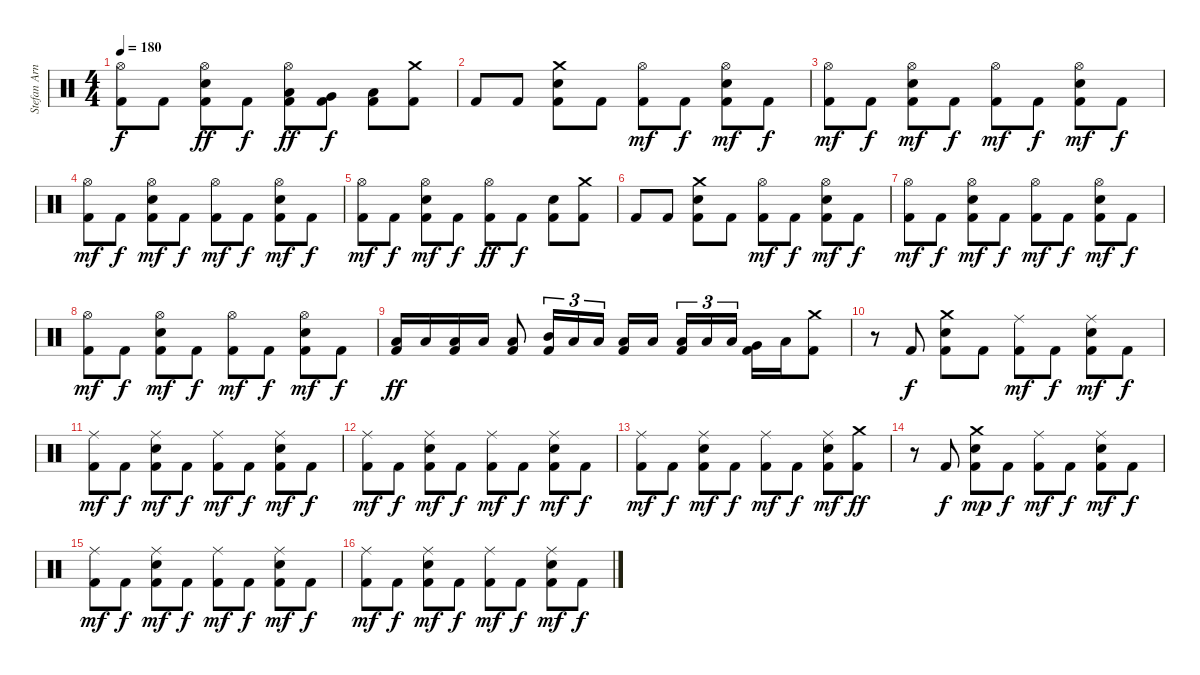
\track ("Stefan Arnold" "Stefan Arn") {instrument percussion}
\staff {score}
\articulation defaults
\ts (4 4)
\tempo 180
\clef neutral
\ks c
("Hi-Hat (open)" "Kick (hit) 2").8{dy f} "Kick (hit) 2".8 ("Hi-Hat (open)" "Electric Snare (hit)" "Kick (hit) 2").8{dy ff} "Kick (hit) 2".8{dy f} ("Hi-Hat (open)" "Low Tom (hit)" "Kick (hit) 2").8{dy ff} ("Very Low Tom (hit)" "Kick (hit) 2").8{dy f} ("Low Floor Tom (hit)" "Kick (hit) 2").8 ("Crash medium (hit)" "Kick (hit) 2").8 |
"Kick (hit) 2".8 "Kick (hit) 2".8 ("Crash medium (hit)" "Electric Snare (hit)" "Kick (hit) 2").8 "Kick (hit) 2".8 ("Hi-Hat (open)" "Kick (hit) 2").8{dy mf} "Kick (hit) 2".8{dy f} ("Hi-Hat (open)" "Electric Snare (hit)" "Kick (hit) 2").8{dy mf} "Kick (hit) 2".8{dy f} |
("Hi-Hat (open)" "Kick (hit) 2").8{dy mf} "Kick (hit) 2".8{dy f} ("Hi-Hat (open)" "Electric Snare (hit)" "Kick (hit) 2").8{dy mf} "Kick (hit) 2".8{dy f} ("Hi-Hat (open)" "Kick (hit) 2").8{dy mf} "Kick (hit) 2".8{dy f} ("Hi-Hat (open)" "Electric Snare (hit)" "Kick (hit) 2").8{dy mf} "Kick (hit) 2".8{dy f} |
("Hi-Hat (open)" "Kick (hit) 2").8{dy mf} "Kick (hit) 2".8{dy f} ("Hi-Hat (open)" "Electric Snare (hit)" "Kick (hit) 2").8{dy mf} "Kick (hit) 2".8{dy f} ("Hi-Hat (open)" "Kick (hit) 2").8{dy mf} "Kick (hit) 2".8{dy f} ("Hi-Hat (open)" "Electric Snare (hit)" "Kick (hit) 2").8{dy mf} "Kick (hit) 2".8{dy f} |
("Hi-Hat (open)" "Kick (hit) 2").8{dy mf} "Kick (hit) 2".8{dy f} ("Hi-Hat (open)" "Electric Snare (hit)" "Kick (hit) 2").8{dy mf} "Kick (hit) 2".8{dy f} ("Hi-Hat (open)" "Kick (hit) 2").8{dy ff} "Kick (hit) 2".8{dy f} ("Electric Snare (hit)" "Kick (hit) 2").8 ("Crash medium (hit)" "Kick (hit) 2").8 |
"Kick (hit) 2".8 "Kick (hit) 2".8 ("Crash medium (hit)" "Electric Snare (hit)" "Kick (hit) 2").8 "Kick (hit) 2".8 ("Hi-Hat (open)" "Kick (hit) 2").8{dy mf} "Kick (hit) 2".8{dy f} ("Hi-Hat (open)" "Electric Snare (hit)" "Kick (hit) 2").8{dy mf} "Kick (hit) 2".8{dy f} |
("Hi-Hat (open)" "Kick (hit) 2").8{dy mf} "Kick (hit) 2".8{dy f} ("Hi-Hat (open)" "Electric Snare (hit)" "Kick (hit) 2").8{dy mf} "Kick (hit) 2".8{dy f} ("Hi-Hat (open)" "Kick (hit) 2").8{dy mf} "Kick (hit) 2".8{dy f} ("Hi-Hat (open)" "Electric Snare (hit)" "Kick (hit) 2").8{dy mf} "Kick (hit) 2".8{dy f} |
("Hi-Hat (open)" "Kick (hit) 2").8{dy mf} "Kick (hit) 2".8{dy f} ("Hi-Hat (open)" "Electric Snare (hit)" "Kick (hit) 2").8{dy mf} "Kick (hit) 2".8{dy f} ("Hi-Hat (open)" "Kick (hit) 2").8{dy mf} "Kick (hit) 2".8{dy f} ("Hi-Hat (open)" "Electric Snare (hit)" "Kick (hit) 2").8{dy mf} "Kick (hit) 2".8{dy f} |
("Low Tom (hit)" "Kick (hit) 2").16{dy ff} "Low Tom (hit)".16 ("Low Tom (hit)" "Kick (hit) 2").16 "Low Tom (hit)".16 ("Low Tom (hit)" "Kick (hit) 2").8 ("Mid Tom (hit)" "Kick (hit) 2").16{tu (3 2)} "Low Tom (hit)".16{tu (3 2)} "Low Tom (hit)".16{tu (3 2)} ("Low Tom (hit)" "Kick (hit) 2").16 "Low Tom (hit)".16{beam splitsecondary} ("Low Tom (hit)" "Kick (hit) 2").16{tu (3 2)} "Low Tom (hit)".16{tu (3 2)} "Low Tom (hit)".16{tu (3 2)} ("Very Low Tom (hit)" "Kick (hit) 2").16 "Low Floor Tom (hit)".16 ("Crash medium (hit)" "Kick (hit) 2").8 |
r.8 "Kick (hit) 2".8{dy f} ("Crash medium (hit)" "Electric Snare (hit)" "Kick (hit) 2").8 "Kick (hit) 2".8 ("Ride (middle)" "Kick (hit) 2").8{dy mf} "Kick (hit) 2".8{dy f} ("Ride (middle)" "Electric Snare (hit)" "Kick (hit) 2").8{dy mf} "Kick (hit) 2".8{dy f} |
("Ride (middle)" "Kick (hit) 2").8{dy mf} "Kick (hit) 2".8{dy f} ("Ride (middle)" "Electric Snare (hit)" "Kick (hit) 2").8{dy mf} "Kick (hit) 2".8{dy f} ("Ride (middle)" "Kick (hit) 2").8{dy mf} "Kick (hit) 2".8{dy f} ("Ride (middle)" "Electric Snare (hit)" "Kick (hit) 2").8{dy mf} "Kick (hit) 2".8{dy f} |
("Ride (middle)" "Kick (hit) 2").8{dy mf} "Kick (hit) 2".8{dy f} ("Ride (middle)" "Electric Snare (hit)" "Kick (hit) 2").8{dy mf} "Kick (hit) 2".8{dy f} ("Ride (middle)" "Kick (hit) 2").8{dy mf} "Kick (hit) 2".8{dy f} ("Ride (middle)" "Electric Snare (hit)" "Kick (hit) 2").8{dy mf} "Kick (hit) 2".8{dy f} |
("Ride (middle)" "Kick (hit) 2").8{dy mf} "Kick (hit) 2".8{dy f} ("Ride (middle)" "Electric Snare (hit)" "Kick (hit) 2").8{dy mf} "Kick (hit) 2".8{dy f} ("Ride (middle)" "Kick (hit) 2").8{dy mf} "Kick (hit) 2".8{dy f} ("Ride (middle)" "Electric Snare (hit)" "Kick (hit) 2").8{dy mf} ("Crash medium (hit)" "Kick (hit) 2").8{dy ff} |
r.8 "Kick (hit) 2".8{dy f} ("Crash medium (hit)" "Electric Snare (hit)" "Kick (hit) 2").8{dy mp} "Kick (hit) 2".8{dy f} ("Ride (middle)" "Kick (hit) 2").8{dy mf} "Kick (hit) 2".8{dy f} ("Ride (middle)" "Electric Snare (hit)" "Kick (hit) 2").8{dy mf} "Kick (hit) 2".8{dy f} |
("Ride (middle)" "Kick (hit) 2").8{dy mf} "Kick (hit) 2".8{dy f} ("Ride (middle)" "Electric Snare (hit)" "Kick (hit) 2").8{dy mf} "Kick (hit) 2".8{dy f} ("Ride (middle)" "Kick (hit) 2").8{dy mf} "Kick (hit) 2".8{dy f} ("Ride (middle)" "Electric Snare (hit)" "Kick (hit) 2").8{dy mf} "Kick (hit) 2".8{dy f} |
("Ride (middle)" "Kick (hit) 2").8{dy mf} "Kick (hit) 2".8{dy f} ("Ride (middle)" "Electric Snare (hit)" "Kick (hit) 2").8{dy mf} "Kick (hit) 2".8{dy f} ("Ride (middle)" "Kick (hit) 2").8{dy mf} "Kick (hit) 2".8{dy f} ("Ride (middle)" "Electric Snare (hit)" "Kick (hit) 2").8{dy mf} "Kick (hit) 2".8{dy f}
